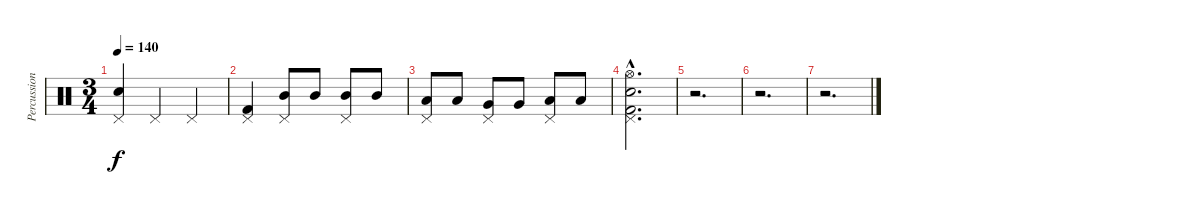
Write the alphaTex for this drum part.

\track ("Percussion" "Percussion") {instrument percussion}
\staff {score}
\articulation defaults
\ts (3 4)
\tempo 140
\clef neutral
\ks c
("Pedal Hi-Hat (hit)" "Snare (hit) 2").4{dy f} "Pedal Hi-Hat (hit)".4 "Pedal Hi-Hat (hit)".4 |
("Pedal Hi-Hat (hit)" "Kick (hit) 2").4 ("Pedal Hi-Hat (hit)" "Mid Tom (hit)").8 "Mid Tom (hit)".8 ("Pedal Hi-Hat (hit)" "Mid Tom (hit)").8 "Mid Tom (hit)".8 |
("Pedal Hi-Hat (hit)" "Low Tom (hit)").8 "Low Tom (hit)".8 ("Pedal Hi-Hat (hit)" "Very Low Tom (hit)").8 "Very Low Tom (hit)".8 ("Pedal Hi-Hat (hit)" "Low Floor Tom (hit)").8 "Low Floor Tom (hit)".8 |
("Pedal Hi-Hat (hit)"{hac} "Snare (hit) 2"{hac} "Kick (hit) 2"{hac} "Hi-Hat (open)"{hac}).2{d} |
r.2{d} |
r.2{d} |
r.2{d}
